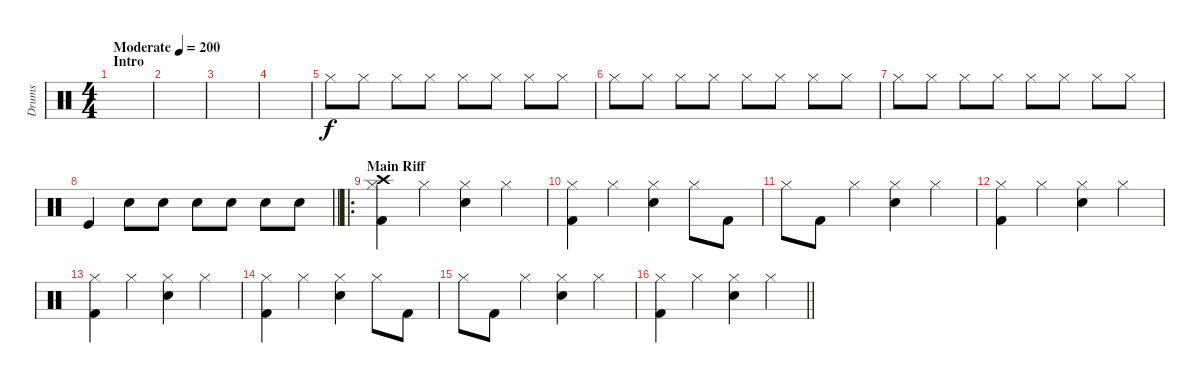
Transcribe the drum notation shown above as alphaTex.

\track ("Drums" "Drums") {instrument percussion}
\staff {score}
\articulation defaults
\ts (4 4)
\section ("" "Intro")
\tempo (200 "Moderate")
\clef neutral
\ks c
|
|
|
|
"Hi-Hat (closed)".8 "Hi-Hat (closed)".8 "Hi-Hat (closed)".8 "Hi-Hat (closed)".8 "Hi-Hat (closed)".8 "Hi-Hat (closed)".8 "Hi-Hat (closed)".8 "Hi-Hat (closed)".8 |
"Hi-Hat (closed)".8 "Hi-Hat (closed)".8 "Hi-Hat (closed)".8 "Hi-Hat (closed)".8 "Hi-Hat (closed)".8 "Hi-Hat (closed)".8 "Hi-Hat (closed)".8 "Hi-Hat (closed)".8 |
"Hi-Hat (closed)".8 "Hi-Hat (closed)".8 "Hi-Hat (closed)".8 "Hi-Hat (closed)".8 "Hi-Hat (closed)".8 "Hi-Hat (closed)".8 "Hi-Hat (closed)".8 "Hi-Hat (closed)".8 |
\barLineRight lightlight "Kick (hit)".4 "Electric Snare (hit)".8 "Electric Snare (hit)".8 "Electric Snare (hit)".8 "Electric Snare (hit)".8 "Electric Snare (hit)".8 "Electric Snare (hit)".8
|
\ro
\section ("" "Main Riff")
("Hi-Hat (closed)" "Crash high (hit)" "Kick (hit) 2").4 "Hi-Hat (closed)".4 ("Hi-Hat (closed)" "Snare (hit) 2").4 "Hi-Hat (closed)".4 |
("Hi-Hat (closed)" "Kick (hit) 2").4 "Hi-Hat (closed)".4 ("Hi-Hat (closed)" "Snare (hit) 2").4 "Hi-Hat (closed)".8 "Kick (hit) 2".8 |
"Hi-Hat (closed)".8 "Kick (hit) 2".8 "Hi-Hat (closed)".4 ("Hi-Hat (closed)" "Snare (hit) 2").4 "Hi-Hat (closed)".4 |
("Hi-Hat (closed)" "Kick (hit) 2").4 "Hi-Hat (closed)".4 ("Hi-Hat (closed)" "Snare (hit) 2").4 "Hi-Hat (closed)".4 |
("Hi-Hat (closed)" "Kick (hit) 2").4 "Hi-Hat (closed)".4 ("Hi-Hat (closed)" "Snare (hit) 2").4 "Hi-Hat (closed)".4 |
("Hi-Hat (closed)" "Kick (hit) 2").4 "Hi-Hat (closed)".4 ("Hi-Hat (closed)" "Snare (hit) 2").4 "Hi-Hat (closed)".8 "Kick (hit) 2".8 |
"Hi-Hat (closed)".8 "Kick (hit) 2".8 "Hi-Hat (closed)".4 ("Hi-Hat (closed)" "Snare (hit) 2").4 "Hi-Hat (closed)".4 |
\barLineRight lightlight
("Hi-Hat (closed)" "Kick (hit) 2").4 "Hi-Hat (closed)".4 ("Hi-Hat (closed)" "Snare (hit) 2").4 "Hi-Hat (closed)".4
